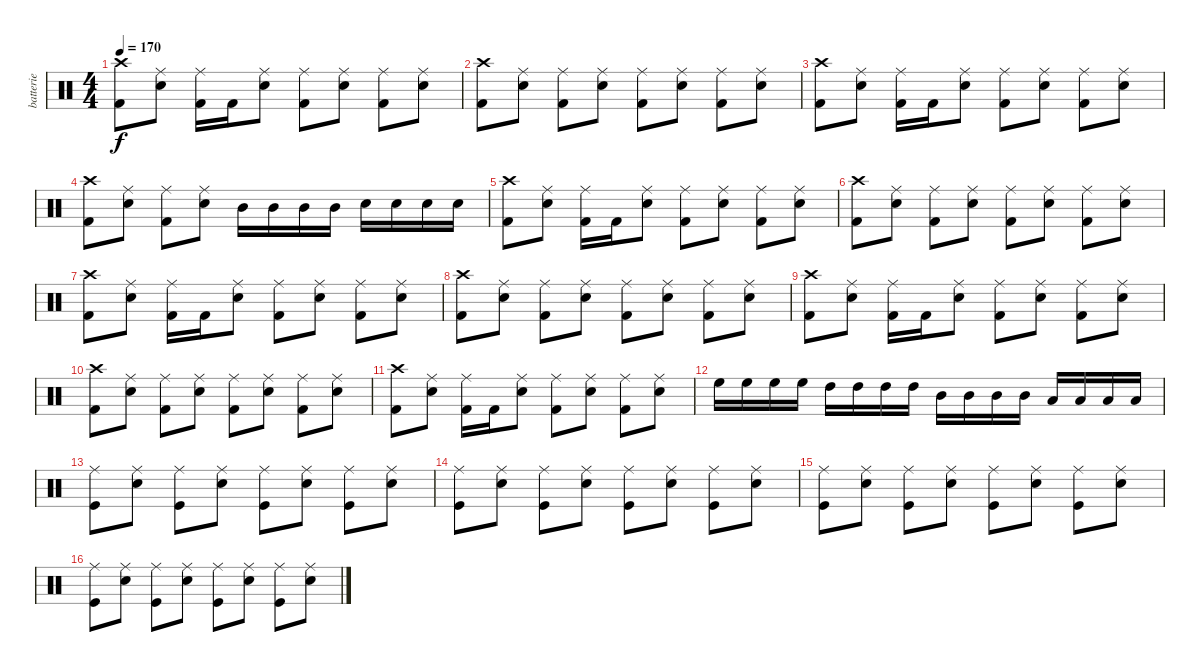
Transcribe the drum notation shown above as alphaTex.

\track ("batterie" "batterie") {instrument percussion}
\staff {score}
\articulation defaults
\ts (4 4)
\tempo 170
\clef neutral
\ks c
("Crash high (hit)" "Kick (hit) 2").8{dy f} ("Ride (middle)" "Snare (hit) 2").8 ("Ride (middle)" "Kick (hit) 2").16 "Kick (hit) 2".16 ("Ride (middle)" "Snare (hit) 2").8 ("Ride (middle)" "Kick (hit) 2").8 ("Ride (middle)" "Snare (hit) 2").8 ("Ride (middle)" "Kick (hit) 2").8 ("Ride (middle)" "Snare (hit) 2").8 |
("Crash high (hit)" "Kick (hit) 2").8 ("Ride (middle)" "Snare (hit) 2").8 ("Ride (middle)" "Kick (hit) 2").8 ("Ride (middle)" "Snare (hit) 2").8 ("Ride (middle)" "Kick (hit) 2").8 ("Ride (middle)" "Snare (hit) 2").8 ("Ride (middle)" "Kick (hit) 2").8 ("Ride (middle)" "Snare (hit) 2").8 |
("Crash high (hit)" "Kick (hit) 2").8 ("Ride (middle)" "Snare (hit) 2").8 ("Ride (middle)" "Kick (hit) 2").16 "Kick (hit) 2".16 ("Ride (middle)" "Snare (hit) 2").8 ("Ride (middle)" "Kick (hit) 2").8 ("Ride (middle)" "Snare (hit) 2").8 ("Ride (middle)" "Kick (hit) 2").8 ("Ride (middle)" "Snare (hit) 2").8 |
("Crash high (hit)" "Kick (hit) 2").8 ("Ride (middle)" "Snare (hit) 2").8 ("Ride (middle)" "Kick (hit) 2").8 ("Ride (middle)" "Snare (hit) 2").8 "Mid Tom (hit)".16 "Mid Tom (hit)".16 "Mid Tom (hit)".16 "Mid Tom (hit)".16 "Snare (hit) 2".16 "Snare (hit) 2".16 "Snare (hit) 2".16 "Snare (hit) 2".16 |
("Crash high (hit)" "Kick (hit) 2").8 ("Ride (middle)" "Snare (hit) 2").8 ("Ride (middle)" "Kick (hit) 2").16 "Kick (hit) 2".16 ("Ride (middle)" "Snare (hit) 2").8 ("Ride (middle)" "Kick (hit) 2").8 ("Ride (middle)" "Snare (hit) 2").8 ("Ride (middle)" "Kick (hit) 2").8 ("Ride (middle)" "Snare (hit) 2").8 |
("Crash high (hit)" "Kick (hit) 2").8 ("Ride (middle)" "Snare (hit) 2").8 ("Ride (middle)" "Kick (hit) 2").8 ("Ride (middle)" "Snare (hit) 2").8 ("Ride (middle)" "Kick (hit) 2").8 ("Ride (middle)" "Snare (hit) 2").8 ("Ride (middle)" "Kick (hit) 2").8 ("Ride (middle)" "Snare (hit) 2").8 |
("Crash high (hit)" "Kick (hit) 2").8 ("Ride (middle)" "Snare (hit) 2").8 ("Ride (middle)" "Kick (hit) 2").16 "Kick (hit) 2".16 ("Ride (middle)" "Snare (hit) 2").8 ("Ride (middle)" "Kick (hit) 2").8 ("Ride (middle)" "Snare (hit) 2").8 ("Ride (middle)" "Kick (hit) 2").8 ("Ride (middle)" "Snare (hit) 2").8 |
("Crash high (hit)" "Kick (hit) 2").8 ("Ride (middle)" "Snare (hit) 2").8 ("Ride (middle)" "Kick (hit) 2").8 ("Ride (middle)" "Snare (hit) 2").8 ("Ride (middle)" "Kick (hit) 2").8 ("Ride (middle)" "Snare (hit) 2").8 ("Ride (middle)" "Kick (hit) 2").8 ("Ride (middle)" "Snare (hit) 2").8 |
("Crash high (hit)" "Kick (hit) 2").8 ("Ride (middle)" "Snare (hit) 2").8 ("Ride (middle)" "Kick (hit) 2").16 "Kick (hit) 2".16 ("Ride (middle)" "Snare (hit) 2").8 ("Ride (middle)" "Kick (hit) 2").8 ("Ride (middle)" "Snare (hit) 2").8 ("Ride (middle)" "Kick (hit) 2").8 ("Ride (middle)" "Snare (hit) 2").8 |
("Crash high (hit)" "Kick (hit) 2").8 ("Ride (middle)" "Snare (hit) 2").8 ("Ride (middle)" "Kick (hit) 2").8 ("Ride (middle)" "Snare (hit) 2").8 ("Ride (middle)" "Kick (hit) 2").8 ("Ride (middle)" "Snare (hit) 2").8 ("Ride (middle)" "Kick (hit) 2").8 ("Ride (middle)" "Snare (hit) 2").8 |
("Crash high (hit)" "Kick (hit) 2").8 ("Ride (middle)" "Snare (hit) 2").8 ("Ride (middle)" "Kick (hit) 2").16 "Kick (hit) 2".16 ("Ride (middle)" "Snare (hit) 2").8 ("Ride (middle)" "Kick (hit) 2").8 ("Ride (middle)" "Snare (hit) 2").8 ("Ride (middle)" "Kick (hit) 2").8 ("Ride (middle)" "Snare (hit) 2").8 |
"High Floor Tom (hit)".16 "High Floor Tom (hit)".16 "High Floor Tom (hit)".16 "High Floor Tom (hit)".16 "High Tom (hit)".16 "High Tom (hit)".16 "High Tom (hit)".16 "High Tom (hit)".16 "Mid Tom (hit)".16 "Mid Tom (hit)".16 "Mid Tom (hit)".16 "Mid Tom (hit)".16 "Low Tom (hit)".16 "Low Tom (hit)".16 "Low Tom (hit)".16 "Low Tom (hit)".16 |
("Ride (middle)" "Kick (hit)").8 ("Ride (middle)" "Snare (hit) 2").8 ("Ride (middle)" "Kick (hit)").8 ("Ride (middle)" "Snare (hit) 2").8 ("Ride (middle)" "Kick (hit)").8 ("Ride (middle)" "Snare (hit) 2").8 ("Ride (middle)" "Kick (hit)").8 ("Ride (middle)" "Snare (hit) 2").8 |
("Ride (middle)" "Kick (hit)").8 ("Ride (middle)" "Snare (hit) 2").8 ("Ride (middle)" "Kick (hit)").8 ("Ride (middle)" "Snare (hit) 2").8 ("Ride (middle)" "Kick (hit)").8 ("Ride (middle)" "Snare (hit) 2").8 ("Ride (middle)" "Kick (hit)").8 ("Ride (middle)" "Snare (hit) 2").8 |
("Ride (middle)" "Kick (hit)").8 ("Ride (middle)" "Snare (hit) 2").8 ("Ride (middle)" "Kick (hit)").8 ("Ride (middle)" "Snare (hit) 2").8 ("Ride (middle)" "Kick (hit)").8 ("Ride (middle)" "Snare (hit) 2").8 ("Ride (middle)" "Kick (hit)").8 ("Ride (middle)" "Snare (hit) 2").8 |
("Ride (middle)" "Kick (hit)").8 ("Ride (middle)" "Snare (hit) 2").8 ("Ride (middle)" "Kick (hit)").8 ("Ride (middle)" "Snare (hit) 2").8 ("Ride (middle)" "Kick (hit)").8 ("Ride (middle)" "Snare (hit) 2").8 ("Ride (middle)" "Kick (hit)").8 ("Ride (middle)" "Snare (hit) 2").8
